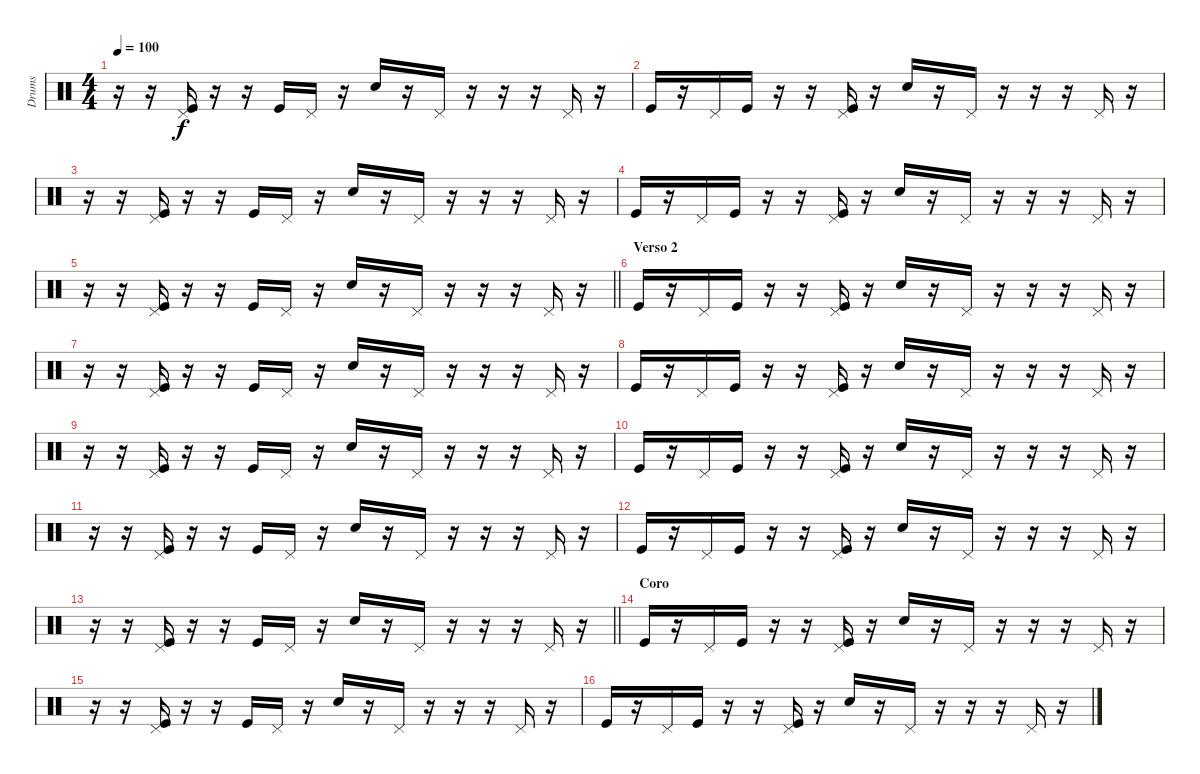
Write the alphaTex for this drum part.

\track ("Drums " "Drums ") {instrument percussion}
\staff {score}
\articulation defaults
\ts (4 4)
\tempo 100
\clef neutral
\ks c
r.16{dy f} r.16 ("Pedal Hi-Hat (hit)" "Kick (hit)").16 r.16 r.16 "Kick (hit)".16 "Pedal Hi-Hat (hit)".16 r.16 "Snare (hit) 2".16 r.16 "Pedal Hi-Hat (hit)".16 r.16 r.16 r.16 "Pedal Hi-Hat (hit)".16 r.16 |
"Kick (hit)".16 r.16 "Pedal Hi-Hat (hit)".16 "Kick (hit)".16 r.16 r.16 ("Pedal Hi-Hat (hit)" "Kick (hit)").16 r.16 "Snare (hit) 2".16 r.16 "Pedal Hi-Hat (hit)".16 r.16 r.16 r.16 "Pedal Hi-Hat (hit)".16 r.16 |
r.16 r.16 ("Pedal Hi-Hat (hit)" "Kick (hit)").16 r.16 r.16 "Kick (hit)".16 "Pedal Hi-Hat (hit)".16 r.16 "Snare (hit) 2".16 r.16 "Pedal Hi-Hat (hit)".16 r.16 r.16 r.16 "Pedal Hi-Hat (hit)".16 r.16 |
"Kick (hit)".16 r.16 "Pedal Hi-Hat (hit)".16 "Kick (hit)".16 r.16 r.16 ("Pedal Hi-Hat (hit)" "Kick (hit)").16 r.16 "Snare (hit) 2".16 r.16 "Pedal Hi-Hat (hit)".16 r.16 r.16 r.16 "Pedal Hi-Hat (hit)".16 r.16 |
\barLineRight lightlight
r.16 r.16 ("Pedal Hi-Hat (hit)" "Kick (hit)").16 r.16 r.16 "Kick (hit)".16 "Pedal Hi-Hat (hit)".16 r.16 "Snare (hit) 2".16 r.16 "Pedal Hi-Hat (hit)".16 r.16 r.16 r.16 "Pedal Hi-Hat (hit)".16 r.16 |
\section ("" "Verso 2")
"Kick (hit)".16 r.16 "Pedal Hi-Hat (hit)".16 "Kick (hit)".16 r.16 r.16 ("Pedal Hi-Hat (hit)" "Kick (hit)").16 r.16 "Snare (hit) 2".16 r.16 "Pedal Hi-Hat (hit)".16 r.16 r.16 r.16 "Pedal Hi-Hat (hit)".16 r.16 |
r.16 r.16 ("Pedal Hi-Hat (hit)" "Kick (hit)").16 r.16 r.16 "Kick (hit)".16 "Pedal Hi-Hat (hit)".16 r.16 "Snare (hit) 2".16 r.16 "Pedal Hi-Hat (hit)".16 r.16 r.16 r.16 "Pedal Hi-Hat (hit)".16 r.16 |
"Kick (hit)".16 r.16 "Pedal Hi-Hat (hit)".16 "Kick (hit)".16 r.16 r.16 ("Pedal Hi-Hat (hit)" "Kick (hit)").16 r.16 "Snare (hit) 2".16 r.16 "Pedal Hi-Hat (hit)".16 r.16 r.16 r.16 "Pedal Hi-Hat (hit)".16 r.16 |
r.16 r.16 ("Pedal Hi-Hat (hit)" "Kick (hit)").16 r.16 r.16 "Kick (hit)".16 "Pedal Hi-Hat (hit)".16 r.16 "Snare (hit) 2".16 r.16 "Pedal Hi-Hat (hit)".16 r.16 r.16 r.16 "Pedal Hi-Hat (hit)".16 r.16 |
"Kick (hit)".16 r.16 "Pedal Hi-Hat (hit)".16 "Kick (hit)".16 r.16 r.16 ("Pedal Hi-Hat (hit)" "Kick (hit)").16 r.16 "Snare (hit) 2".16 r.16 "Pedal Hi-Hat (hit)".16 r.16 r.16 r.16 "Pedal Hi-Hat (hit)".16 r.16 |
r.16 r.16 ("Pedal Hi-Hat (hit)" "Kick (hit)").16 r.16 r.16 "Kick (hit)".16 "Pedal Hi-Hat (hit)".16 r.16 "Snare (hit) 2".16 r.16 "Pedal Hi-Hat (hit)".16 r.16 r.16 r.16 "Pedal Hi-Hat (hit)".16 r.16 |
"Kick (hit)".16 r.16 "Pedal Hi-Hat (hit)".16 "Kick (hit)".16 r.16 r.16 ("Pedal Hi-Hat (hit)" "Kick (hit)").16 r.16 "Snare (hit) 2".16 r.16 "Pedal Hi-Hat (hit)".16 r.16 r.16 r.16 "Pedal Hi-Hat (hit)".16 r.16 |
\barLineRight lightlight
r.16 r.16 ("Pedal Hi-Hat (hit)" "Kick (hit)").16 r.16 r.16 "Kick (hit)".16 "Pedal Hi-Hat (hit)".16 r.16 "Snare (hit) 2".16 r.16 "Pedal Hi-Hat (hit)".16 r.16 r.16 r.16 "Pedal Hi-Hat (hit)".16 r.16 |
\section ("" "Coro ")
"Kick (hit)".16 r.16 "Pedal Hi-Hat (hit)".16 "Kick (hit)".16 r.16 r.16 ("Pedal Hi-Hat (hit)" "Kick (hit)").16 r.16 "Snare (hit) 2".16 r.16 "Pedal Hi-Hat (hit)".16 r.16 r.16 r.16 "Pedal Hi-Hat (hit)".16 r.16 |
r.16 r.16 ("Pedal Hi-Hat (hit)" "Kick (hit)").16 r.16 r.16 "Kick (hit)".16 "Pedal Hi-Hat (hit)".16 r.16 "Snare (hit) 2".16 r.16 "Pedal Hi-Hat (hit)".16 r.16 r.16 r.16 "Pedal Hi-Hat (hit)".16 r.16 |
"Kick (hit)".16 r.16 "Pedal Hi-Hat (hit)".16 "Kick (hit)".16 r.16 r.16 ("Pedal Hi-Hat (hit)" "Kick (hit)").16 r.16 "Snare (hit) 2".16 r.16 "Pedal Hi-Hat (hit)".16 r.16 r.16 r.16 "Pedal Hi-Hat (hit)".16 r.16
